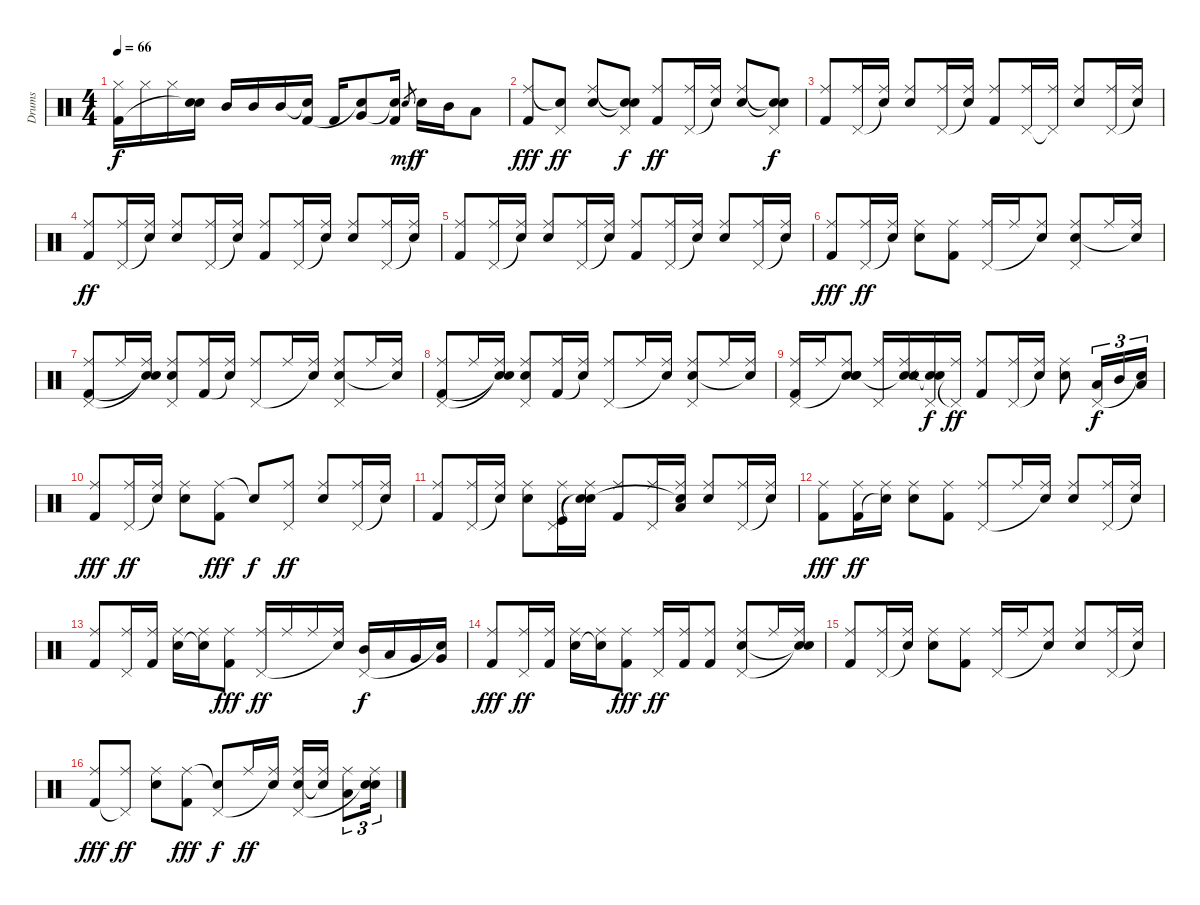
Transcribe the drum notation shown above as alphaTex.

\track ("Drums" "Drums") {instrument percussion}
\staff {score}
\articulation defaults
\ts (4 4)
\tempo 66
\clef neutral
\ks c
("Hi-Hat (closed)" "Kick (hit) 2").16{dy f} "Hi-Hat (closed)".16 "Hi-Hat (closed)".16 ("Electric Snare (hit)" "Snare (hit)"{t}).16 "Mid Tom (hit)".16 "Mid Tom (hit)".16 "Mid Tom (hit)".16 ("Snare (hit)"{t} "Kick (hit) 2").16 "Kick (hit) 2".16 ("Very Low Tom (hit)" "Snare (hit)"{t}).8 ("Snare (hit)"{t} "Kick (hit) 2").16 "Electric Snare (hit)".8{gr dy mf} "Electric Snare (hit)".16{dy f} "Mid Tom (hit)".16 "Low Tom (hit)".8 |
("Ride (middle)" "Kick (hit) 2").8{dy fff} ("Snare (hit)"{t} "Pedal Hi-Hat (hit)").8{dy ff} ("Ride (middle)" "Electric Snare (hit)").8 ("Snare (hit)"{t} "Snare (hit)"{t} "Pedal Hi-Hat (hit)").8{dy f} ("Ride (middle)" "Kick (hit) 2").8{dy ff} ("Ride (middle)" "Pedal Hi-Hat (hit)").16 ("Ride (middle)" "Snare (hit)"{t}).16 ("Ride (middle)" "Electric Snare (hit)").8 ("Snare (hit)"{t} "Snare (hit)"{t} "Pedal Hi-Hat (hit)").8{dy f} |
("Ride (middle)" "Kick (hit) 2").8 ("Ride (middle)" "Pedal Hi-Hat (hit)").16 ("Ride (middle)" "Snare (hit)"{t}).16 ("Ride (middle)" "Electric Snare (hit)").8 ("Ride (middle)" "Pedal Hi-Hat (hit)").16 ("Ride (middle)" "Snare (hit)"{t}).16 ("Ride (middle)" "Kick (hit) 2").8 ("Ride (middle)" "Pedal Hi-Hat (hit)").16 ("Ride (middle)" "Pedal Hi-Hat (hit)"{t}).16 ("Ride (middle)" "Electric Snare (hit)").8 ("Ride (middle)" "Pedal Hi-Hat (hit)").16 ("Ride (middle)" "Snare (hit)"{t}).16 |
("Ride (middle)" "Kick (hit) 2").8{dy ff} ("Ride (middle)" "Pedal Hi-Hat (hit)").16 ("Ride (middle)" "Snare (hit)"{t}).16 ("Ride (middle)" "Electric Snare (hit)").8 ("Ride (middle)" "Pedal Hi-Hat (hit)").16 ("Ride (middle)" "Snare (hit)"{t}).16 ("Ride (middle)" "Kick (hit) 2").8 ("Ride (middle)" "Pedal Hi-Hat (hit)").16 ("Ride (middle)" "Snare (hit)"{t}).16 ("Ride (middle)" "Electric Snare (hit)").8 ("Ride (middle)" "Pedal Hi-Hat (hit)").16 ("Ride (middle)" "Snare (hit)"{t}).16 |
("Ride (middle)" "Kick (hit) 2").8 ("Ride (middle)" "Pedal Hi-Hat (hit)").16 ("Ride (middle)" "Snare (hit)"{t}).16 ("Ride (middle)" "Electric Snare (hit)").8 ("Ride (middle)" "Pedal Hi-Hat (hit)").16 ("Ride (middle)" "Snare (hit)"{t}).16 ("Ride (middle)" "Kick (hit) 2").8 ("Ride (middle)" "Pedal Hi-Hat (hit)").16 ("Ride (middle)" "Snare (hit)"{t}).16 ("Ride (middle)" "Electric Snare (hit)").8 ("Ride (middle)" "Pedal Hi-Hat (hit)").16 ("Ride (middle)" "Snare (hit)"{t}).16 |
("Ride (middle)" "Kick (hit) 2").8{dy fff} ("Ride (middle)" "Pedal Hi-Hat (hit)").16{dy ff} ("Ride (middle)" "Snare (hit)"{t}).16 ("Ride (middle)" "Electric Snare (hit)").8 ("Ride (middle)" "Kick (hit) 2").8 ("Ride (middle)" "Pedal Hi-Hat (hit)").16 "Ride (middle)".16 ("Ride (middle)" "Snare (hit)"{t}).8 ("Ride (middle)" "Electric Snare (hit)" "Pedal Hi-Hat (hit)").8 "Ride (middle)".16 ("Ride (middle)" "Snare (hit)"{t}).16 |
("Ride (middle)" "Kick (hit) 2" "Pedal Hi-Hat (hit)").8 "Ride (middle)".16 ("Ride (middle)" "Snare (hit)"{t} "Snare (hit)"{t}).16 ("Ride (middle)" "Electric Snare (hit)" "Pedal Hi-Hat (hit)").8 ("Ride (middle)" "Kick (hit) 2").16 ("Ride (middle)" "Snare (hit)"{t}).16 ("Ride (middle)" "Pedal Hi-Hat (hit)").8 "Ride (middle)".16 ("Ride (middle)" "Snare (hit)"{t}).16 ("Ride (middle)" "Electric Snare (hit)" "Pedal Hi-Hat (hit)").8 "Ride (middle)".16 ("Ride (middle)" "Snare (hit)"{t}).16 |
("Ride (middle)" "Kick (hit) 2" "Pedal Hi-Hat (hit)").8 "Ride (middle)".16 ("Ride (middle)" "Snare (hit)"{t} "Snare (hit)"{t}).16 ("Ride (middle)" "Electric Snare (hit)" "Pedal Hi-Hat (hit)").8 ("Ride (middle)" "Kick (hit) 2").16 ("Ride (middle)" "Snare (hit)"{t}).16 ("Ride (middle)" "Pedal Hi-Hat (hit)").8 "Ride (middle)".16 ("Ride (middle)" "Snare (hit)"{t}).16 ("Ride (middle)" "Electric Snare (hit)" "Pedal Hi-Hat (hit)").8 "Ride (middle)".16 ("Ride (middle)" "Snare (hit)"{t}).16 |
("Ride (middle)" "Kick (hit) 2" "Pedal Hi-Hat (hit)").16 "Ride (middle)".16 ("Ride (middle)" "Electric Snare (hit)" "Snare (hit)"{t} "Snare (hit)").8 ("Ride (middle)" "Pedal Hi-Hat (hit)").16 ("Ride (middle)" "Electric Snare (hit)" "Snare (hit)"{t}).16 ("Snare (hit)"{t} "Snare (hit)"{t} "Pedal Hi-Hat (hit)").16{dy f} ("Ride (middle)" "Pedal Hi-Hat (hit)"{t}).16{dy ff} ("Ride (middle)" "Kick (hit) 2").8 ("Ride (middle)" "Pedal Hi-Hat (hit)").16 ("Ride (middle)" "Snare (hit)"{t}).16 ("Ride (middle)" "Electric Snare (hit)").8 ("Low Tom (hit)" "Pedal Hi-Hat (hit)").16{tu (3 2) dy f} "Mid Tom (hit)".16{tu (3 2)} ("Low Tom (hit)" "Snare (hit)"{t}).16{tu (3 2)} |
("Ride (middle)" "Kick (hit) 2").8{dy fff} ("Ride (middle)" "Pedal Hi-Hat (hit)").16{dy ff} ("Ride (middle)" "Snare (hit)"{t}).16 ("Ride (middle)" "Electric Snare (hit)").8 ("Ride (middle)" "Kick (hit) 2").8{dy fff} "Snare (hit)"{t}.8{dy f} ("Ride (middle)" "Pedal Hi-Hat (hit)").8{dy ff} ("Ride (middle)" "Electric Snare (hit)").8 ("Ride (middle)" "Pedal Hi-Hat (hit)").16 ("Ride (middle)" "Snare (hit)"{t}).16 |
("Ride (middle)" "Kick (hit) 2").8 ("Ride (middle)" "Pedal Hi-Hat (hit)").16 ("Ride (middle)" "Snare (hit)"{t}).16 ("Ride (middle)" "Electric Snare (hit)").8 ("Ride (middle)" "Pedal Hi-Hat (hit)" "Kick (hit)").16 ("Ride (middle)" "Snare (hit)"{t} "Snare (hit)"{t}).16 ("Ride (middle)" "Kick (hit) 2").8 ("Ride (middle)" "Pedal Hi-Hat (hit)").16 ("Ride (middle)" "Low Tom (hit)" "Snare (hit)"{t}).16 ("Ride (middle)" "Electric Snare (hit)").8 ("Ride (middle)" "Pedal Hi-Hat (hit)").16 ("Ride (middle)" "Snare (hit)"{t}).16 |
("Ride (middle)" "Kick (hit) 2").8{dy fff} ("Ride (middle)" "Kick (hit) 2").16{dy ff} ("Ride (middle)" "Snare (hit)"{t}).16 ("Ride (middle)" "Electric Snare (hit)").8 ("Ride (middle)" "Kick (hit) 2").8 ("Ride (middle)" "Pedal Hi-Hat (hit)").8 "Ride (middle)".16 ("Ride (middle)" "Snare (hit)"{t}).16 ("Ride (middle)" "Electric Snare (hit)").8 ("Ride (middle)" "Pedal Hi-Hat (hit)").16 ("Ride (middle)" "Snare (hit)"{t}).16 |
("Ride (middle)" "Kick (hit) 2").8 ("Ride (middle)" "Pedal Hi-Hat (hit)").16 ("Ride (middle)" "Kick (hit) 2").16 ("Ride (middle)" "Electric Snare (hit)").16 ("Ride (middle)" "Snare (hit)"{t}).16 ("Ride (middle)" "Kick (hit) 2").8{dy fff} ("Ride (middle)" "Pedal Hi-Hat (hit)").16{dy ff} "Ride (middle)".16 "Ride (middle)".16 ("Ride (middle)" "Snare (hit)"{t}).16 ("Mid Tom (hit)" "Pedal Hi-Hat (hit)").16{dy f} "Low Tom (hit)".16 "Very Low Tom (hit)".16 ("Very Low Tom (hit)" "Snare (hit)"{t}).16 |
("Ride (middle)" "Kick (hit) 2").8{dy fff} ("Ride (middle)" "Pedal Hi-Hat (hit)").16{dy ff} ("Ride (middle)" "Kick (hit) 2").16 ("Ride (middle)" "Electric Snare (hit)").16 ("Ride (middle)" "Snare (hit)"{t}).16 ("Ride (middle)" "Kick (hit) 2").8{dy fff} ("Ride (middle)" "Pedal Hi-Hat (hit)").16{dy ff} ("Ride (middle)" "Kick (hit) 2").16 ("Ride (middle)" "Kick (hit) 2").8 ("Ride (middle)" "Electric Snare (hit)" "Pedal Hi-Hat (hit)").8 "Ride (middle)".16 ("Ride (middle)" "Snare (hit)"{t} "Snare (hit)"{t}).16 |
("Ride (middle)" "Kick (hit) 2").8 ("Ride (middle)" "Pedal Hi-Hat (hit)").16 ("Ride (middle)" "Snare (hit)"{t}).16 ("Ride (middle)" "Electric Snare (hit)").8 ("Ride (middle)" "Kick (hit) 2").8 ("Ride (middle)" "Pedal Hi-Hat (hit)").16 "Ride (middle)".16 ("Ride (middle)" "Snare (hit)"{t}).8 ("Ride (middle)" "Electric Snare (hit)").8 ("Ride (middle)" "Pedal Hi-Hat (hit)").16 ("Ride (middle)" "Snare (hit)"{t}).16 |
("Ride (middle)" "Kick (hit) 2").8{dy fff} ("Ride (middle)" "Pedal Hi-Hat (hit)"{t}).8{dy ff} ("Ride (middle)" "Electric Snare (hit)").8 ("Ride (middle)" "Kick (hit) 2").8{dy fff} ("Snare (hit)"{t} "Pedal Hi-Hat (hit)").8{dy f} "Ride (middle)".16{dy ff} ("Ride (middle)" "Snare (hit)"{t}).16 ("Ride (middle)" "Electric Snare (hit)" "Pedal Hi-Hat (hit)").16 ("Ride (middle)" "Snare (hit)"{t}).16 ("Ride (middle)" "Low Tom (hit)").8{tu (3 2)} ("Ride (middle)" "Electric Snare (hit)" "Snare (hit)"{t}).16{tu (3 2)}
